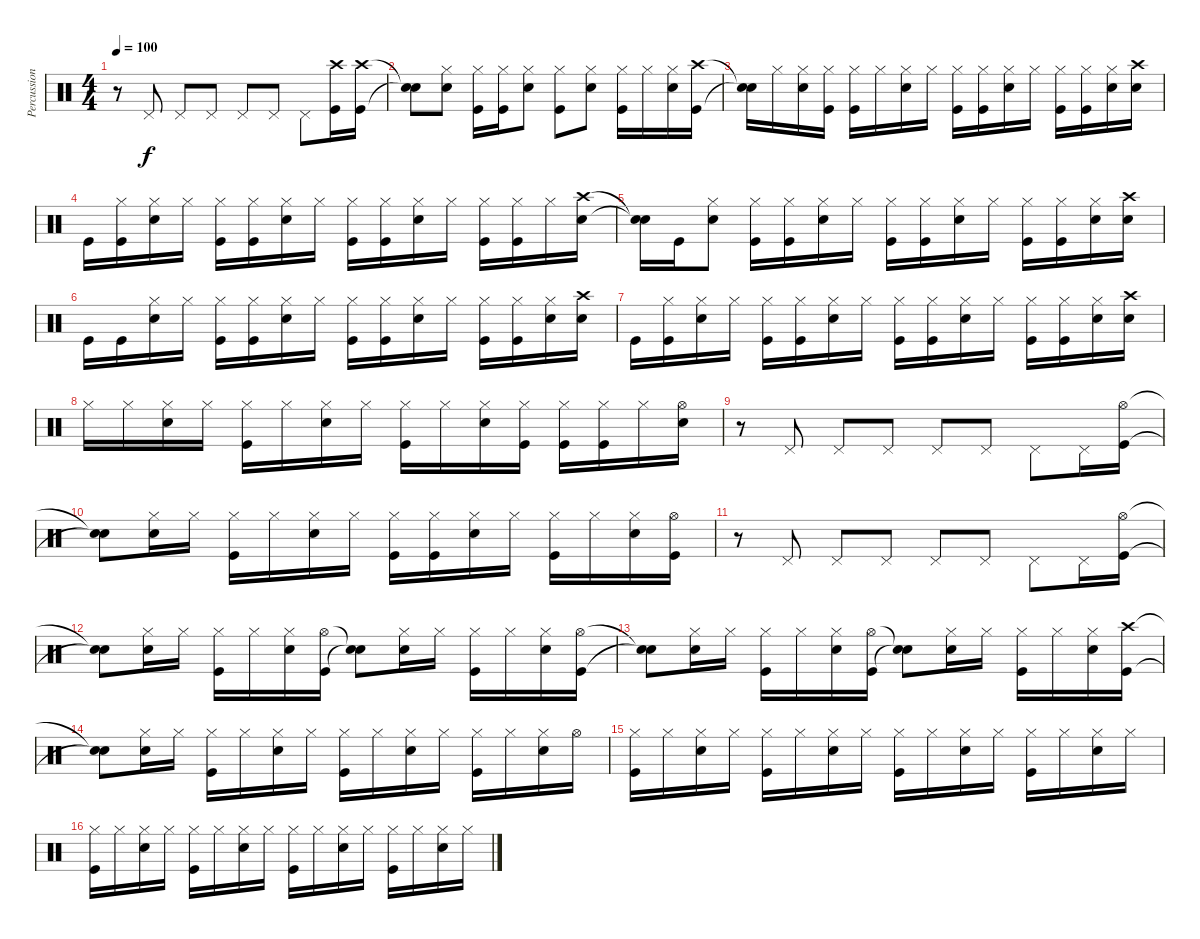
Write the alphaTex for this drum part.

\track ("Percussions" "Percussion") {instrument percussion}
\staff {score}
\articulation defaults
\ts (4 4)
\tempo 100
\clef neutral
\ks c
r.8{dy f} "Pedal Hi-Hat (hit)".8 "Pedal Hi-Hat (hit)".8 "Pedal Hi-Hat (hit)".8 "Pedal Hi-Hat (hit)".8 "Pedal Hi-Hat (hit)".8 "Pedal Hi-Hat (hit)".8 ("Crash high (hit)" "Kick (hit)").16 ("Crash high (hit)" "Kick (hit)").16 |
("Snare (hit)"{t} "Snare (hit)"{t}).8 ("Hi-Hat (closed)" "Snare (hit) 2").8 ("Hi-Hat (closed)" "Kick (hit)").16 ("Hi-Hat (closed)" "Kick (hit)").16 ("Hi-Hat (closed)" "Snare (hit) 2").8 ("Hi-Hat (closed)" "Kick (hit)").8 ("Hi-Hat (closed)" "Snare (hit) 2").8 ("Hi-Hat (closed)" "Kick (hit)").16 "Hi-Hat (closed)".16 ("Hi-Hat (closed)" "Snare (hit) 2").16 ("Crash high (hit)" "Kick (hit)").16 |
("Snare (hit)"{t} "Snare (hit)"{t}).16 "Hi-Hat (closed)".16 ("Hi-Hat (closed)" "Snare (hit) 2").16 ("Hi-Hat (closed)" "Kick (hit)").16 ("Hi-Hat (closed)" "Kick (hit)").16 "Hi-Hat (closed)".16 ("Hi-Hat (closed)" "Snare (hit) 2").16 "Hi-Hat (closed)".16 ("Hi-Hat (closed)" "Kick (hit)").16 ("Hi-Hat (closed)" "Kick (hit)").16 ("Hi-Hat (closed)" "Snare (hit) 2").16 "Hi-Hat (closed)".16 ("Hi-Hat (closed)" "Kick (hit)").16 ("Hi-Hat (closed)" "Kick (hit)").16 ("Hi-Hat (closed)" "Snare (hit) 2").16 ("Crash high (hit)" "Snare (hit) 2").16 |
"Kick (hit)".16 ("Hi-Hat (closed)" "Kick (hit)").16 ("Hi-Hat (closed)" "Snare (hit) 2").16 "Hi-Hat (closed)".16 ("Hi-Hat (closed)" "Kick (hit)").16 ("Hi-Hat (closed)" "Kick (hit)").16 ("Hi-Hat (closed)" "Snare (hit) 2").16 "Hi-Hat (closed)".16 ("Hi-Hat (closed)" "Kick (hit)").16 ("Hi-Hat (closed)" "Kick (hit)").16 ("Hi-Hat (closed)" "Snare (hit) 2").16 "Hi-Hat (closed)".16 ("Hi-Hat (closed)" "Kick (hit)").16 ("Hi-Hat (closed)" "Kick (hit)").16 "Hi-Hat (closed)".16 ("Crash high (hit)" "Snare (hit) 2").16 |
("Snare (hit)"{t} "Snare (hit)"{t}).16 "Kick (hit)".16 ("Hi-Hat (closed)" "Snare (hit) 2").8 ("Hi-Hat (closed)" "Kick (hit)").16 ("Hi-Hat (closed)" "Kick (hit)").16 ("Hi-Hat (closed)" "Snare (hit) 2").16 "Hi-Hat (closed)".16 ("Hi-Hat (closed)" "Kick (hit)").16 ("Hi-Hat (closed)" "Kick (hit)").16 ("Hi-Hat (closed)" "Snare (hit) 2").16 "Hi-Hat (closed)".16 ("Hi-Hat (closed)" "Kick (hit)").16 ("Hi-Hat (closed)" "Kick (hit)").16 ("Hi-Hat (closed)" "Snare (hit) 2").16 ("Crash high (hit)" "Snare (hit) 2").16 |
"Kick (hit)".16 "Kick (hit)".16 ("Hi-Hat (closed)" "Snare (hit) 2").16 "Hi-Hat (closed)".16 ("Hi-Hat (closed)" "Kick (hit)").16 ("Hi-Hat (closed)" "Kick (hit)").16 ("Hi-Hat (closed)" "Snare (hit) 2").16 "Hi-Hat (closed)".16 ("Hi-Hat (closed)" "Kick (hit)").16 ("Hi-Hat (closed)" "Kick (hit)").16 ("Hi-Hat (closed)" "Snare (hit) 2").16 "Hi-Hat (closed)".16 ("Hi-Hat (closed)" "Kick (hit)").16 ("Hi-Hat (closed)" "Kick (hit)").16 ("Hi-Hat (closed)" "Snare (hit) 2").16 ("Crash high (hit)" "Snare (hit) 2").16 |
"Kick (hit)".16 ("Hi-Hat (closed)" "Kick (hit)").16 ("Hi-Hat (closed)" "Snare (hit) 2").16 "Hi-Hat (closed)".16 ("Hi-Hat (closed)" "Kick (hit)").16 ("Hi-Hat (closed)" "Kick (hit)").16 ("Hi-Hat (closed)" "Snare (hit) 2").16 "Hi-Hat (closed)".16 ("Hi-Hat (closed)" "Kick (hit)").16 ("Hi-Hat (closed)" "Kick (hit)").16 ("Hi-Hat (closed)" "Snare (hit) 2").16 "Hi-Hat (closed)".16 ("Hi-Hat (closed)" "Kick (hit)").16 ("Hi-Hat (closed)" "Kick (hit)").16 ("Hi-Hat (closed)" "Snare (hit) 2").16 ("Crash high (hit)" "Snare (hit) 2").16 |
"Hi-Hat (closed)".16 "Hi-Hat (closed)".16 ("Hi-Hat (closed)" "Snare (hit) 2").16 "Hi-Hat (closed)".16 ("Hi-Hat (closed)" "Kick (hit)").16 "Hi-Hat (closed)".16 ("Hi-Hat (closed)" "Snare (hit) 2").16 "Hi-Hat (closed)".16 ("Hi-Hat (closed)" "Kick (hit)").16 "Hi-Hat (closed)".16 ("Hi-Hat (closed)" "Snare (hit) 2").16 ("Hi-Hat (closed)" "Kick (hit)").16 ("Hi-Hat (closed)" "Kick (hit)").16 ("Hi-Hat (closed)" "Kick (hit)").16 "Hi-Hat (closed)".16 ("Hi-Hat (open)" "Snare (hit) 2").16 |
r.8 "Pedal Hi-Hat (hit)".8 "Pedal Hi-Hat (hit)".8 "Pedal Hi-Hat (hit)".8 "Pedal Hi-Hat (hit)".8 "Pedal Hi-Hat (hit)".8 "Pedal Hi-Hat (hit)".8 "Pedal Hi-Hat (hit)".16 ("Hi-Hat (open)" "Kick (hit)").16 |
("Snare (hit)"{t} "Snare (hit)"{t}).8 ("Hi-Hat (closed)" "Snare (hit) 2").16 "Hi-Hat (closed)".16 ("Hi-Hat (closed)" "Kick (hit)").16 "Hi-Hat (closed)".16 ("Hi-Hat (closed)" "Snare (hit) 2").16 "Hi-Hat (closed)".16 ("Hi-Hat (closed)" "Kick (hit)").16 ("Hi-Hat (closed)" "Kick (hit)").16 ("Hi-Hat (closed)" "Snare (hit) 2").16 "Hi-Hat (closed)".16 ("Hi-Hat (closed)" "Kick (hit)").16 "Hi-Hat (closed)".16 ("Hi-Hat (closed)" "Snare (hit) 2").16 ("Hi-Hat (open)" "Kick (hit)").16 |
r.8 "Pedal Hi-Hat (hit)".8 "Pedal Hi-Hat (hit)".8 "Pedal Hi-Hat (hit)".8 "Pedal Hi-Hat (hit)".8 "Pedal Hi-Hat (hit)".8 "Pedal Hi-Hat (hit)".8 "Pedal Hi-Hat (hit)".16 ("Hi-Hat (open)" "Kick (hit)").16 |
("Snare (hit)"{t} "Snare (hit)"{t}).8 ("Hi-Hat (closed)" "Snare (hit) 2").16 "Hi-Hat (closed)".16 ("Hi-Hat (closed)" "Kick (hit)").16 "Hi-Hat (closed)".16 ("Hi-Hat (closed)" "Snare (hit) 2").16 ("Hi-Hat (open)" "Kick (hit)").16 ("Snare (hit)"{t} "Snare (hit)"{t}).8 ("Hi-Hat (closed)" "Snare (hit) 2").16 "Hi-Hat (closed)".16 ("Hi-Hat (closed)" "Kick (hit)").16 "Hi-Hat (closed)".16 ("Hi-Hat (closed)" "Snare (hit) 2").16 ("Hi-Hat (open)" "Kick (hit)").16 |
("Snare (hit)"{t} "Snare (hit)"{t}).8 ("Hi-Hat (closed)" "Snare (hit) 2").16 "Hi-Hat (closed)".16 ("Hi-Hat (closed)" "Kick (hit)").16 "Hi-Hat (closed)".16 ("Hi-Hat (closed)" "Snare (hit) 2").16 ("Hi-Hat (open)" "Kick (hit)").16 ("Snare (hit)"{t} "Snare (hit)"{t}).8 ("Hi-Hat (closed)" "Snare (hit) 2").16 "Hi-Hat (closed)".16 ("Hi-Hat (closed)" "Kick (hit)").16 "Hi-Hat (closed)".16 ("Hi-Hat (closed)" "Snare (hit) 2").16 ("Crash high (hit)" "Kick (hit)").16 |
("Snare (hit)"{t} "Snare (hit)"{t}).8 ("Hi-Hat (closed)" "Snare (hit) 2").16 "Hi-Hat (closed)".16 ("Hi-Hat (closed)" "Kick (hit)").16 "Hi-Hat (closed)".16 ("Hi-Hat (closed)" "Snare (hit) 2").16 "Hi-Hat (closed)".16 ("Hi-Hat (closed)" "Kick (hit)").16 "Hi-Hat (closed)".16 ("Hi-Hat (closed)" "Snare (hit) 2").16 "Hi-Hat (closed)".16 ("Hi-Hat (closed)" "Kick (hit)").16 "Hi-Hat (closed)".16 ("Hi-Hat (closed)" "Snare (hit) 2").16 "Hi-Hat (open)".16 |
("Hi-Hat (closed)" "Kick (hit)").16 "Hi-Hat (closed)".16 ("Hi-Hat (closed)" "Snare (hit) 2").16 "Hi-Hat (closed)".16 ("Hi-Hat (closed)" "Kick (hit)").16 "Hi-Hat (closed)".16 ("Hi-Hat (closed)" "Snare (hit) 2").16 "Hi-Hat (closed)".16 ("Hi-Hat (closed)" "Kick (hit)").16 "Hi-Hat (closed)".16 ("Hi-Hat (closed)" "Snare (hit) 2").16 "Hi-Hat (closed)".16 ("Hi-Hat (closed)" "Kick (hit)").16 "Hi-Hat (closed)".16 ("Hi-Hat (closed)" "Snare (hit) 2").16 "Hi-Hat (closed)".16 |
("Hi-Hat (closed)" "Kick (hit)").16 "Hi-Hat (closed)".16 ("Hi-Hat (closed)" "Snare (hit) 2").16 "Hi-Hat (closed)".16 ("Hi-Hat (closed)" "Kick (hit)").16 "Hi-Hat (closed)".16 ("Hi-Hat (closed)" "Snare (hit) 2").16 "Hi-Hat (closed)".16 ("Hi-Hat (closed)" "Kick (hit)").16 "Hi-Hat (closed)".16 ("Hi-Hat (closed)" "Snare (hit) 2").16 "Hi-Hat (closed)".16 ("Hi-Hat (closed)" "Kick (hit)").16 "Hi-Hat (closed)".16 ("Hi-Hat (closed)" "Snare (hit) 2").16 "Hi-Hat (closed)".16
